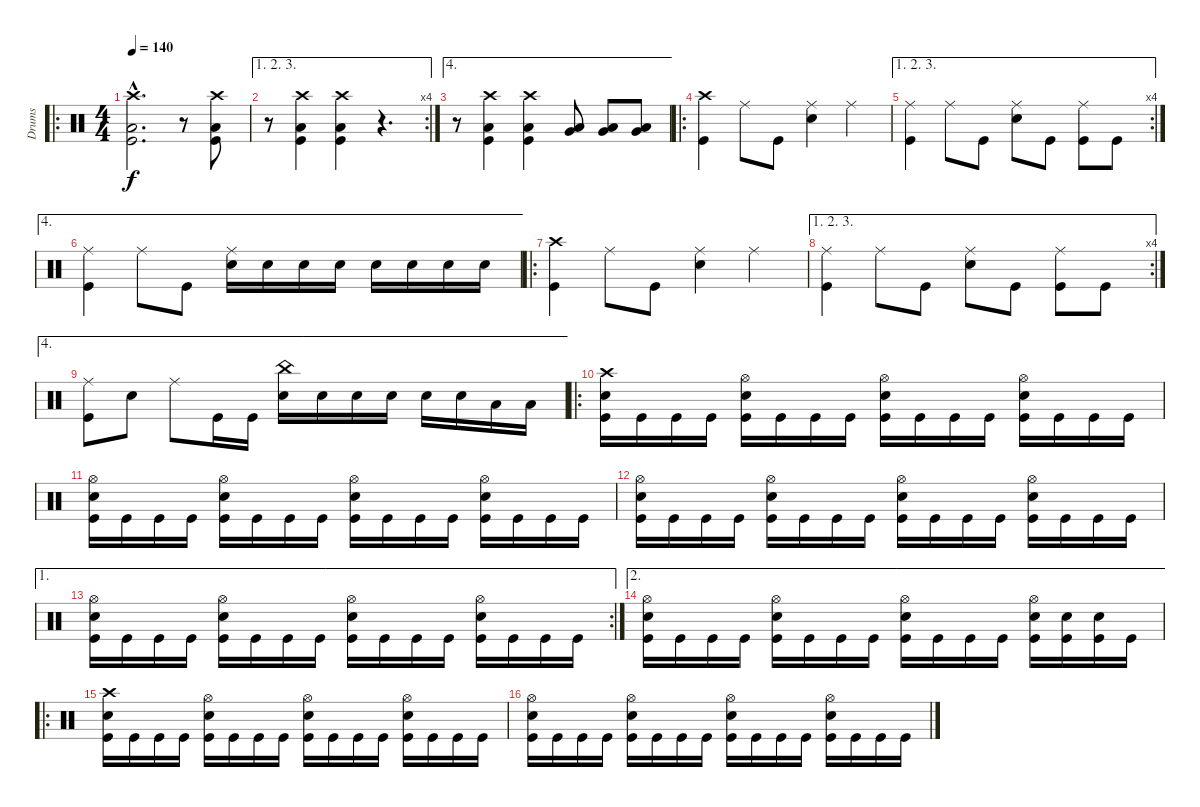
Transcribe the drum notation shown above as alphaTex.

\track ("Drums" "Drums") {instrument percussion}
\staff {score}
\articulation defaults
\ro
\ts (4 4)
\tempo 140
\clef neutral
\ks c
("Crash high (hit)"{hac} "Low Floor Tom (hit)"{hac} "Kick (hit)"{hac}).2{d dy f} r.8 ("Crash high (hit)" "Low Floor Tom (hit)" "Kick (hit)").8 |
\ae (1 2 3)
\rc 4
r.8 ("Crash high (hit)" "Low Floor Tom (hit)" "Kick (hit)").4 ("Crash high (hit)" "Low Floor Tom (hit)" "Kick (hit)").4 r.4{d} |
\ae 4
r.8 ("Crash high (hit)" "Low Floor Tom (hit)" "Kick (hit)").4 ("Crash high (hit)" "Low Floor Tom (hit)" "Kick (hit)").4 ("Very Low Tom (hit)" "Low Floor Tom (hit)").8 ("Very Low Tom (hit)" "Low Floor Tom (hit)").8 ("Very Low Tom (hit)" "Low Floor Tom (hit)").8 |
\ro
("Crash high (hit)" "Kick (hit)").4 "Ride (middle)".8 "Kick (hit)".8 ("Ride (middle)" "Electric Snare (hit)").4 "Ride (middle)".4 |
\ae (1 2 3)
\rc 4
("Ride (middle)" "Kick (hit)").4 "Ride (middle)".8 "Kick (hit)".8 ("Ride (middle)" "Electric Snare (hit)").8 "Kick (hit)".8 ("Ride (middle)" "Kick (hit)").8 "Kick (hit)".8 |
\ae 4
("Ride (middle)" "Kick (hit)").4 "Ride (middle)".8 "Kick (hit)".8 ("Ride (middle)" "Electric Snare (hit)").16 "Electric Snare (hit)".16 "Electric Snare (hit)".16 "Electric Snare (hit)".16 "Electric Snare (hit)".16 "Electric Snare (hit)".16 "Electric Snare (hit)".16 "Electric Snare (hit)".16 |
\ro
("Crash high (hit)" "Kick (hit)").4 "Ride (middle)".8 "Kick (hit)".8 ("Ride (middle)" "Electric Snare (hit)").4 "Ride (middle)".4 |
\ae (1 2 3)
\rc 4
("Ride (middle)" "Kick (hit)").4 "Ride (middle)".8 "Kick (hit)".8 ("Ride (middle)" "Electric Snare (hit)").8 "Kick (hit)".8 ("Ride (middle)" "Kick (hit)").8 "Kick (hit)".8 |
\ae 4
("Ride (middle)" "Kick (hit)").8 "Electric Snare (hit)".8 "Ride (middle)".8 "Kick (hit)".16 "Kick (hit)".16 ("China (hit)" "Electric Snare (hit)").16 "Electric Snare (hit)".16 "Electric Snare (hit)".16 "Electric Snare (hit)".16 "Electric Snare (hit)".16 "Electric Snare (hit)".16 "Low Tom (hit)".16 "Low Tom (hit)".16 |
\ro
("Crash high (hit)" "Electric Snare (hit)" "Kick (hit)").16 "Kick (hit)".16 "Kick (hit)".16 "Kick (hit)".16 ("Hi-Hat (open)" "Electric Snare (hit)" "Kick (hit)").16 "Kick (hit)".16 "Kick (hit)".16 "Kick (hit)".16 ("Hi-Hat (open)" "Electric Snare (hit)" "Kick (hit)").16 "Kick (hit)".16 "Kick (hit)".16 "Kick (hit)".16 ("Hi-Hat (open)" "Electric Snare (hit)" "Kick (hit)").16 "Kick (hit)".16 "Kick (hit)".16 "Kick (hit)".16 |
("Hi-Hat (open)" "Electric Snare (hit)" "Kick (hit)").16 "Kick (hit)".16 "Kick (hit)".16 "Kick (hit)".16 ("Hi-Hat (open)" "Electric Snare (hit)" "Kick (hit)").16 "Kick (hit)".16 "Kick (hit)".16 "Kick (hit)".16 ("Hi-Hat (open)" "Electric Snare (hit)" "Kick (hit)").16 "Kick (hit)".16 "Kick (hit)".16 "Kick (hit)".16 ("Hi-Hat (open)" "Electric Snare (hit)" "Kick (hit)").16 "Kick (hit)".16 "Kick (hit)".16 "Kick (hit)".16 |
("Hi-Hat (open)" "Electric Snare (hit)" "Kick (hit)").16 "Kick (hit)".16 "Kick (hit)".16 "Kick (hit)".16 ("Hi-Hat (open)" "Electric Snare (hit)" "Kick (hit)").16 "Kick (hit)".16 "Kick (hit)".16 "Kick (hit)".16 ("Hi-Hat (open)" "Electric Snare (hit)" "Kick (hit)").16 "Kick (hit)".16 "Kick (hit)".16 "Kick (hit)".16 ("Hi-Hat (open)" "Electric Snare (hit)" "Kick (hit)").16 "Kick (hit)".16 "Kick (hit)".16 "Kick (hit)".16 |
\ae 1
\rc 2
("Hi-Hat (open)" "Electric Snare (hit)" "Kick (hit)").16 "Kick (hit)".16 "Kick (hit)".16 "Kick (hit)".16 ("Hi-Hat (open)" "Electric Snare (hit)" "Kick (hit)").16 "Kick (hit)".16 "Kick (hit)".16 "Kick (hit)".16 ("Hi-Hat (open)" "Electric Snare (hit)" "Kick (hit)").16 "Kick (hit)".16 "Kick (hit)".16 "Kick (hit)".16 ("Hi-Hat (open)" "Electric Snare (hit)" "Kick (hit)").16 "Kick (hit)".16 "Kick (hit)".16 "Kick (hit)".16 |
\ae 2
("Hi-Hat (open)" "Electric Snare (hit)" "Kick (hit)").16 "Kick (hit)".16 "Kick (hit)".16 "Kick (hit)".16 ("Hi-Hat (open)" "Electric Snare (hit)" "Kick (hit)").16 "Kick (hit)".16 "Kick (hit)".16 "Kick (hit)".16 ("Hi-Hat (open)" "Electric Snare (hit)" "Kick (hit)").16 "Kick (hit)".16 "Kick (hit)".16 "Kick (hit)".16 ("Hi-Hat (open)" "Electric Snare (hit)" "Kick (hit)").16 ("Electric Snare (hit)" "Kick (hit)").16 ("Electric Snare (hit)" "Kick (hit)").16 "Kick (hit)".16 |
\ro
("Crash high (hit)" "Electric Snare (hit)" "Kick (hit)").16 "Kick (hit)".16 "Kick (hit)".16 "Kick (hit)".16 ("Hi-Hat (open)" "Electric Snare (hit)" "Kick (hit)").16 "Kick (hit)".16 "Kick (hit)".16 "Kick (hit)".16 ("Hi-Hat (open)" "Electric Snare (hit)" "Kick (hit)").16 "Kick (hit)".16 "Kick (hit)".16 "Kick (hit)".16 ("Hi-Hat (open)" "Electric Snare (hit)" "Kick (hit)").16 "Kick (hit)".16 "Kick (hit)".16 "Kick (hit)".16 |
("Hi-Hat (open)" "Electric Snare (hit)" "Kick (hit)").16 "Kick (hit)".16 "Kick (hit)".16 "Kick (hit)".16 ("Hi-Hat (open)" "Electric Snare (hit)" "Kick (hit)").16 "Kick (hit)".16 "Kick (hit)".16 "Kick (hit)".16 ("Hi-Hat (open)" "Electric Snare (hit)" "Kick (hit)").16 "Kick (hit)".16 "Kick (hit)".16 "Kick (hit)".16 ("Hi-Hat (open)" "Electric Snare (hit)" "Kick (hit)").16 "Kick (hit)".16 "Kick (hit)".16 "Kick (hit)".16
